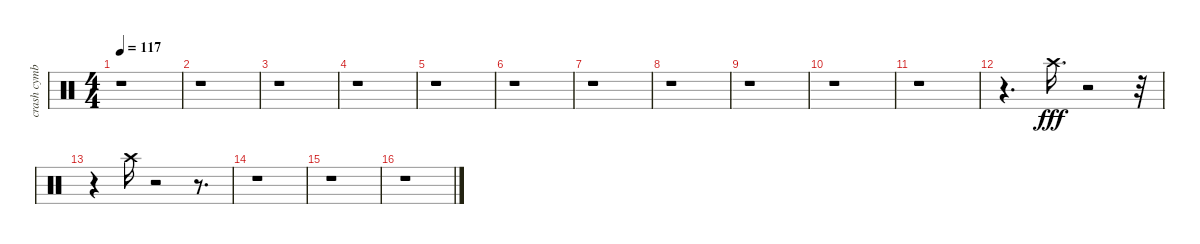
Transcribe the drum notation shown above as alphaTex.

\track ("crash cymbal" "crash cymb") {instrument percussion}
\staff {score}
\articulation defaults
\ts (4 4)
\tempo 117
\clef neutral
\ks c
r.1{dy p} |
r.1 |
r.1 |
r.1 |
r.1 |
r.1 |
r.1 |
r.1 |
r.1 |
r.1 |
r.1 |
r.4{d} "Crash high (hit)".16{d dy fff} r.2 r.32 |
r.4 "Crash high (hit)".16 r.2 r.8{d} |
r.1 |
r.1 |
r.1
